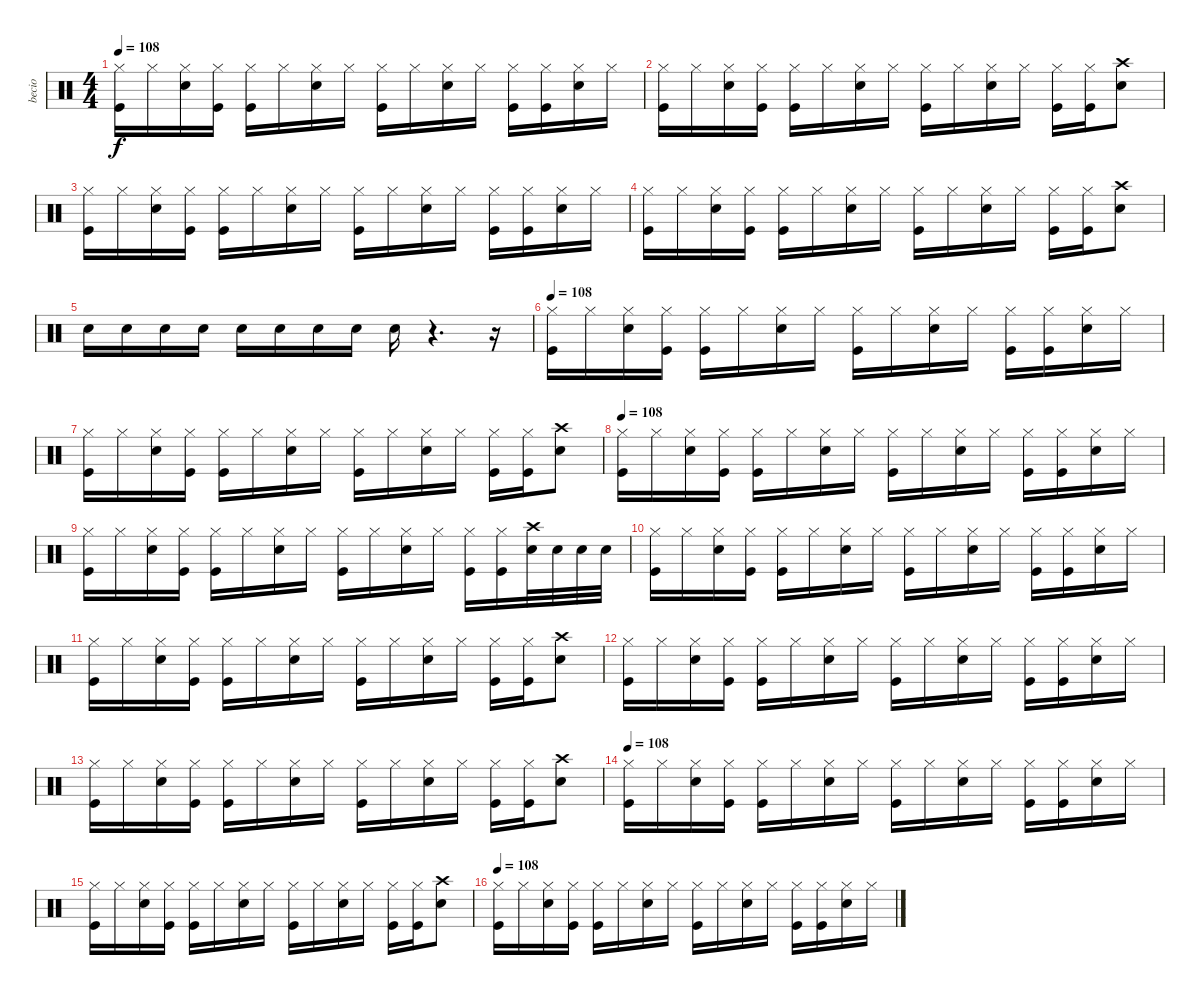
\track ("becio" "becio") {instrument percussion}
\staff {score}
\articulation defaults
\ts (4 4)
\tempo 108
\clef neutral
\ks c
("Kick (hit)" "Hi-Hat (closed)").16{dy f} "Hi-Hat (closed)".16 ("Electric Snare (hit)" "Hi-Hat (closed)").16 ("Kick (hit)" "Hi-Hat (closed)").16 ("Kick (hit)" "Hi-Hat (closed)").16 "Hi-Hat (closed)".16 ("Electric Snare (hit)" "Hi-Hat (closed)").16 "Hi-Hat (closed)".16 ("Kick (hit)" "Hi-Hat (closed)").16 "Hi-Hat (closed)".16 ("Electric Snare (hit)" "Hi-Hat (closed)").16 "Hi-Hat (closed)".16 ("Kick (hit)" "Hi-Hat (closed)").16 ("Kick (hit)" "Hi-Hat (closed)").16 ("Electric Snare (hit)" "Hi-Hat (closed)").16 "Hi-Hat (closed)".16 |
("Kick (hit)" "Hi-Hat (closed)").16 "Hi-Hat (closed)".16 ("Electric Snare (hit)" "Hi-Hat (closed)").16 ("Kick (hit)" "Hi-Hat (closed)").16 ("Kick (hit)" "Hi-Hat (closed)").16 "Hi-Hat (closed)".16 ("Electric Snare (hit)" "Hi-Hat (closed)").16 "Hi-Hat (closed)".16 ("Kick (hit)" "Hi-Hat (closed)").16 "Hi-Hat (closed)".16 ("Electric Snare (hit)" "Hi-Hat (closed)").16 "Hi-Hat (closed)".16 ("Kick (hit)" "Hi-Hat (closed)").16 ("Kick (hit)" "Hi-Hat (closed)").16 ("Electric Snare (hit)" "Crash high (hit)").8 |
("Kick (hit)" "Hi-Hat (closed)").16 "Hi-Hat (closed)".16 ("Electric Snare (hit)" "Hi-Hat (closed)").16 ("Kick (hit)" "Hi-Hat (closed)").16 ("Kick (hit)" "Hi-Hat (closed)").16 "Hi-Hat (closed)".16 ("Electric Snare (hit)" "Hi-Hat (closed)").16 "Hi-Hat (closed)".16 ("Kick (hit)" "Hi-Hat (closed)").16 "Hi-Hat (closed)".16 ("Electric Snare (hit)" "Hi-Hat (closed)").16 "Hi-Hat (closed)".16 ("Kick (hit)" "Hi-Hat (closed)").16 ("Kick (hit)" "Hi-Hat (closed)").16 ("Electric Snare (hit)" "Hi-Hat (closed)").16 "Hi-Hat (closed)".16 |
("Kick (hit)" "Hi-Hat (closed)").16 "Hi-Hat (closed)".16 ("Electric Snare (hit)" "Hi-Hat (closed)").16 ("Kick (hit)" "Hi-Hat (closed)").16 ("Kick (hit)" "Hi-Hat (closed)").16 "Hi-Hat (closed)".16 ("Electric Snare (hit)" "Hi-Hat (closed)").16 "Hi-Hat (closed)".16 ("Kick (hit)" "Hi-Hat (closed)").16 "Hi-Hat (closed)".16 ("Electric Snare (hit)" "Hi-Hat (closed)").16 "Hi-Hat (closed)".16 ("Kick (hit)" "Hi-Hat (closed)").16 ("Kick (hit)" "Hi-Hat (closed)").16 ("Electric Snare (hit)" "Crash high (hit)").8 |
"Electric Snare (hit)".16 "Electric Snare (hit)".16 "Electric Snare (hit)".16 "Electric Snare (hit)".16 "Electric Snare (hit)".16 "Electric Snare (hit)".16 "Electric Snare (hit)".16 "Electric Snare (hit)".16 "Electric Snare (hit)".16 r.4{d} r.16 |
\tempo 108
("Kick (hit)" "Hi-Hat (closed)").16 "Hi-Hat (closed)".16 ("Electric Snare (hit)" "Hi-Hat (closed)").16 ("Kick (hit)" "Hi-Hat (closed)").16 ("Kick (hit)" "Hi-Hat (closed)").16 "Hi-Hat (closed)".16 ("Electric Snare (hit)" "Hi-Hat (closed)").16 "Hi-Hat (closed)".16 ("Kick (hit)" "Hi-Hat (closed)").16 "Hi-Hat (closed)".16 ("Electric Snare (hit)" "Hi-Hat (closed)").16 "Hi-Hat (closed)".16 ("Kick (hit)" "Hi-Hat (closed)").16 ("Kick (hit)" "Hi-Hat (closed)").16 ("Electric Snare (hit)" "Hi-Hat (closed)").16 "Hi-Hat (closed)".16 |
("Kick (hit)" "Hi-Hat (closed)").16 "Hi-Hat (closed)".16 ("Electric Snare (hit)" "Hi-Hat (closed)").16 ("Kick (hit)" "Hi-Hat (closed)").16 ("Kick (hit)" "Hi-Hat (closed)").16 "Hi-Hat (closed)".16 ("Electric Snare (hit)" "Hi-Hat (closed)").16 "Hi-Hat (closed)".16 ("Kick (hit)" "Hi-Hat (closed)").16 "Hi-Hat (closed)".16 ("Electric Snare (hit)" "Hi-Hat (closed)").16 "Hi-Hat (closed)".16 ("Kick (hit)" "Hi-Hat (closed)").16 ("Kick (hit)" "Hi-Hat (closed)").16 ("Electric Snare (hit)" "Crash high (hit)").8 |
\tempo 108
("Kick (hit)" "Hi-Hat (closed)").16 "Hi-Hat (closed)".16 ("Electric Snare (hit)" "Hi-Hat (closed)").16 ("Kick (hit)" "Hi-Hat (closed)").16 ("Kick (hit)" "Hi-Hat (closed)").16 "Hi-Hat (closed)".16 ("Electric Snare (hit)" "Hi-Hat (closed)").16 "Hi-Hat (closed)".16 ("Kick (hit)" "Hi-Hat (closed)").16 "Hi-Hat (closed)".16 ("Electric Snare (hit)" "Hi-Hat (closed)").16 "Hi-Hat (closed)".16 ("Kick (hit)" "Hi-Hat (closed)").16 ("Kick (hit)" "Hi-Hat (closed)").16 ("Electric Snare (hit)" "Hi-Hat (closed)").16 "Hi-Hat (closed)".16 |
("Kick (hit)" "Hi-Hat (closed)").16 "Hi-Hat (closed)".16 ("Electric Snare (hit)" "Hi-Hat (closed)").16 ("Kick (hit)" "Hi-Hat (closed)").16 ("Kick (hit)" "Hi-Hat (closed)").16 "Hi-Hat (closed)".16 ("Electric Snare (hit)" "Hi-Hat (closed)").16 "Hi-Hat (closed)".16 ("Kick (hit)" "Hi-Hat (closed)").16 "Hi-Hat (closed)".16 ("Electric Snare (hit)" "Hi-Hat (closed)").16 "Hi-Hat (closed)".16 ("Kick (hit)" "Hi-Hat (closed)").16 ("Kick (hit)" "Hi-Hat (closed)").16 ("Electric Snare (hit)" "Crash high (hit)").32 "Electric Snare (hit)".32 "Electric Snare (hit)".32 "Electric Snare (hit)".32 |
("Kick (hit)" "Hi-Hat (closed)").16 "Hi-Hat (closed)".16 ("Electric Snare (hit)" "Hi-Hat (closed)").16 ("Kick (hit)" "Hi-Hat (closed)").16 ("Kick (hit)" "Hi-Hat (closed)").16 "Hi-Hat (closed)".16 ("Electric Snare (hit)" "Hi-Hat (closed)").16 "Hi-Hat (closed)".16 ("Kick (hit)" "Hi-Hat (closed)").16 "Hi-Hat (closed)".16 ("Electric Snare (hit)" "Hi-Hat (closed)").16 "Hi-Hat (closed)".16 ("Kick (hit)" "Hi-Hat (closed)").16 ("Kick (hit)" "Hi-Hat (closed)").16 ("Electric Snare (hit)" "Hi-Hat (closed)").16 "Hi-Hat (closed)".16 |
("Kick (hit)" "Hi-Hat (closed)").16 "Hi-Hat (closed)".16 ("Electric Snare (hit)" "Hi-Hat (closed)").16 ("Kick (hit)" "Hi-Hat (closed)").16 ("Kick (hit)" "Hi-Hat (closed)").16 "Hi-Hat (closed)".16 ("Electric Snare (hit)" "Hi-Hat (closed)").16 "Hi-Hat (closed)".16 ("Kick (hit)" "Hi-Hat (closed)").16 "Hi-Hat (closed)".16 ("Electric Snare (hit)" "Hi-Hat (closed)").16 "Hi-Hat (closed)".16 ("Kick (hit)" "Hi-Hat (closed)").16 ("Kick (hit)" "Hi-Hat (closed)").16 ("Electric Snare (hit)" "Crash high (hit)").8 |
("Kick (hit)" "Hi-Hat (closed)").16 "Hi-Hat (closed)".16 ("Electric Snare (hit)" "Hi-Hat (closed)").16 ("Kick (hit)" "Hi-Hat (closed)").16 ("Kick (hit)" "Hi-Hat (closed)").16 "Hi-Hat (closed)".16 ("Electric Snare (hit)" "Hi-Hat (closed)").16 "Hi-Hat (closed)".16 ("Kick (hit)" "Hi-Hat (closed)").16 "Hi-Hat (closed)".16 ("Electric Snare (hit)" "Hi-Hat (closed)").16 "Hi-Hat (closed)".16 ("Kick (hit)" "Hi-Hat (closed)").16 ("Kick (hit)" "Hi-Hat (closed)").16 ("Electric Snare (hit)" "Hi-Hat (closed)").16 "Hi-Hat (closed)".16 |
("Kick (hit)" "Hi-Hat (closed)").16 "Hi-Hat (closed)".16 ("Electric Snare (hit)" "Hi-Hat (closed)").16 ("Kick (hit)" "Hi-Hat (closed)").16 ("Kick (hit)" "Hi-Hat (closed)").16 "Hi-Hat (closed)".16 ("Electric Snare (hit)" "Hi-Hat (closed)").16 "Hi-Hat (closed)".16 ("Kick (hit)" "Hi-Hat (closed)").16 "Hi-Hat (closed)".16 ("Electric Snare (hit)" "Hi-Hat (closed)").16 "Hi-Hat (closed)".16 ("Kick (hit)" "Hi-Hat (closed)").16 ("Kick (hit)" "Hi-Hat (closed)").16 ("Electric Snare (hit)" "Crash high (hit)").8 |
\tempo 108
("Kick (hit)" "Hi-Hat (closed)").16 "Hi-Hat (closed)".16 ("Electric Snare (hit)" "Hi-Hat (closed)").16 ("Kick (hit)" "Hi-Hat (closed)").16 ("Kick (hit)" "Hi-Hat (closed)").16 "Hi-Hat (closed)".16 ("Electric Snare (hit)" "Hi-Hat (closed)").16 "Hi-Hat (closed)".16 ("Kick (hit)" "Hi-Hat (closed)").16 "Hi-Hat (closed)".16 ("Electric Snare (hit)" "Hi-Hat (closed)").16 "Hi-Hat (closed)".16 ("Kick (hit)" "Hi-Hat (closed)").16 ("Kick (hit)" "Hi-Hat (closed)").16 ("Electric Snare (hit)" "Hi-Hat (closed)").16 "Hi-Hat (closed)".16 |
("Kick (hit)" "Hi-Hat (closed)").16 "Hi-Hat (closed)".16 ("Electric Snare (hit)" "Hi-Hat (closed)").16 ("Kick (hit)" "Hi-Hat (closed)").16 ("Kick (hit)" "Hi-Hat (closed)").16 "Hi-Hat (closed)".16 ("Electric Snare (hit)" "Hi-Hat (closed)").16 "Hi-Hat (closed)".16 ("Kick (hit)" "Hi-Hat (closed)").16 "Hi-Hat (closed)".16 ("Electric Snare (hit)" "Hi-Hat (closed)").16 "Hi-Hat (closed)".16 ("Kick (hit)" "Hi-Hat (closed)").16 ("Kick (hit)" "Hi-Hat (closed)").16 ("Electric Snare (hit)" "Crash high (hit)").8 |
\tempo 108
("Kick (hit)" "Hi-Hat (closed)").16 "Hi-Hat (closed)".16 ("Electric Snare (hit)" "Hi-Hat (closed)").16 ("Kick (hit)" "Hi-Hat (closed)").16 ("Kick (hit)" "Hi-Hat (closed)").16 "Hi-Hat (closed)".16 ("Electric Snare (hit)" "Hi-Hat (closed)").16 "Hi-Hat (closed)".16 ("Kick (hit)" "Hi-Hat (closed)").16 "Hi-Hat (closed)".16 ("Electric Snare (hit)" "Hi-Hat (closed)").16 "Hi-Hat (closed)".16 ("Kick (hit)" "Hi-Hat (closed)").16 ("Kick (hit)" "Hi-Hat (closed)").16 ("Electric Snare (hit)" "Hi-Hat (closed)").16 "Hi-Hat (closed)".16
